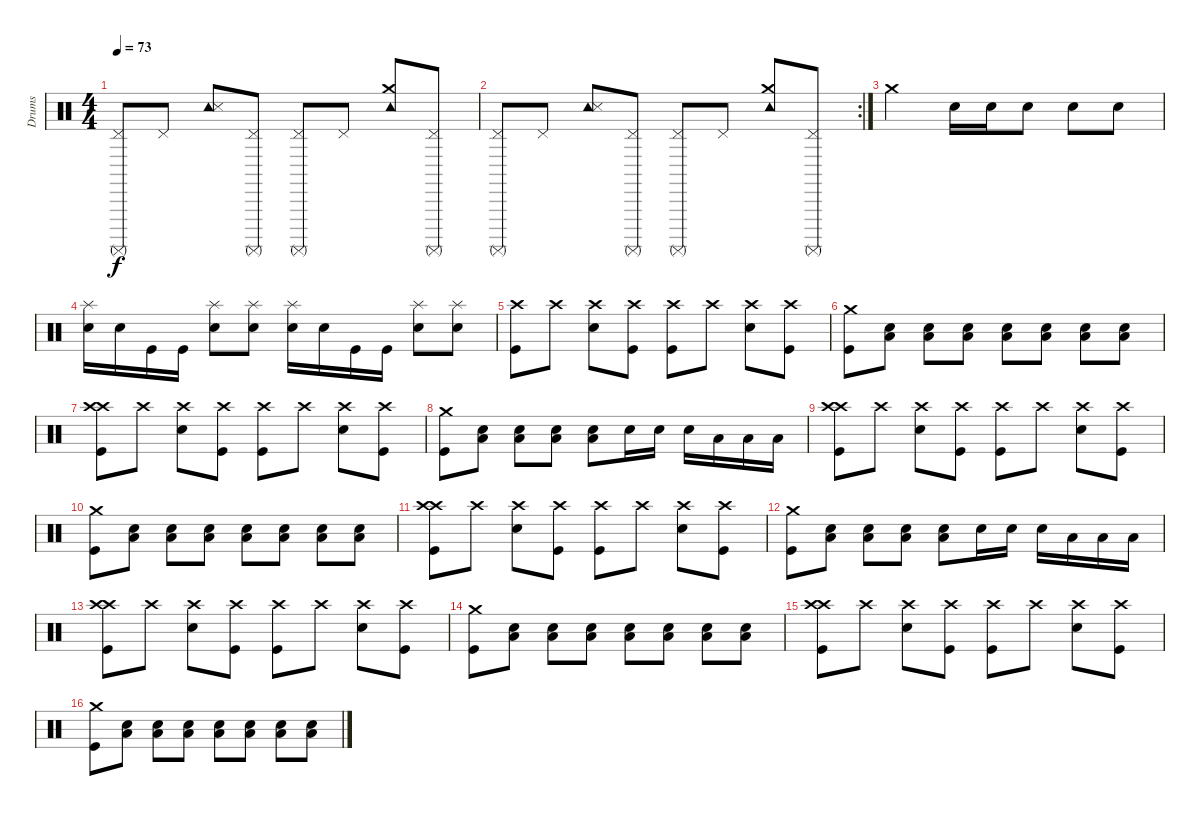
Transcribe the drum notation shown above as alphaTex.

\track ("Drums" "Drums") {instrument percussion}
\staff {score}
\articulation defaults
\ts (4 4)
\tempo 73
\clef neutral
\ks c
("Pedal Hi-Hat (hit)" "Surdo (mute)").8{dy f} "Pedal Hi-Hat (hit)".8 ("Tambourine (hit)" "Snare (side stick) 3").8 ("Pedal Hi-Hat (hit)" "Surdo (mute)").8 ("Pedal Hi-Hat (hit)" "Surdo (mute)").8 "Pedal Hi-Hat (hit)".8 ("Tambourine (hit)" "Crash medium (hit)").8 ("Pedal Hi-Hat (hit)" "Surdo (mute)").8 |
\rc 2
("Pedal Hi-Hat (hit)" "Surdo (mute)").8 "Pedal Hi-Hat (hit)".8 ("Tambourine (hit)" "Snare (side stick) 3").8 ("Pedal Hi-Hat (hit)" "Surdo (mute)").8 ("Pedal Hi-Hat (hit)" "Surdo (mute)").8 "Pedal Hi-Hat (hit)".8 ("Tambourine (hit)" "Crash medium (hit)").8 ("Pedal Hi-Hat (hit)" "Surdo (mute)").8 |
"Crash medium (hit)".2 "Electric Snare (hit)".16 "Electric Snare (hit)".16 "Electric Snare (hit)".8 "Electric Snare (hit)".8 "Electric Snare (hit)".8 |
("Splash (hit)" "Electric Snare (hit)").16 "Electric Snare (hit)".16 "Kick (hit)".16 "Kick (hit)".16 ("Splash (hit)" "Electric Snare (hit)").8 ("Splash (hit)" "Electric Snare (hit)").8 ("Splash (hit)" "Electric Snare (hit)").16 "Electric Snare (hit)".16 "Kick (hit)".16 "Kick (hit)".16 ("Splash (hit)" "Electric Snare (hit)").8 ("Splash (hit)" "Electric Snare (hit)").8 |
("Crash high (hit)" "Kick (hit)").8 "Crash high (hit)".8 ("Crash high (hit)" "Electric Snare (hit)").8 ("Crash high (hit)" "Kick (hit)").8 ("Crash high (hit)" "Kick (hit)").8 "Crash high (hit)".8 ("Crash high (hit)" "Electric Snare (hit)").8 ("Crash high (hit)" "Kick (hit)").8 |
("Crash medium (hit)" "Kick (hit)").8 ("Low Floor Tom (hit)" "Electric Snare (hit)").8 ("Low Floor Tom (hit)" "Electric Snare (hit)").8 ("Low Floor Tom (hit)" "Electric Snare (hit)").8 ("Low Floor Tom (hit)" "Electric Snare (hit)").8 ("Low Floor Tom (hit)" "Electric Snare (hit)").8 ("Low Floor Tom (hit)" "Electric Snare (hit)").8 ("Low Floor Tom (hit)" "Electric Snare (hit)").8 |
("Crash high (hit)" "Crash high (hit)" "Kick (hit)").8 "Crash high (hit)".8 ("Crash high (hit)" "Electric Snare (hit)").8 ("Crash high (hit)" "Kick (hit)").8 ("Crash high (hit)" "Kick (hit)").8 "Crash high (hit)".8 ("Crash high (hit)" "Electric Snare (hit)").8 ("Crash high (hit)" "Kick (hit)").8 |
("Crash medium (hit)" "Kick (hit)").8 ("Low Floor Tom (hit)" "Electric Snare (hit)").8 ("Low Floor Tom (hit)" "Electric Snare (hit)").8 ("Low Floor Tom (hit)" "Electric Snare (hit)").8 ("Low Floor Tom (hit)" "Electric Snare (hit)").8 "Electric Snare (hit)".16 "Electric Snare (hit)".16 "Electric Snare (hit)".16 "Low Tom (hit)".16 "Low Tom (hit)".16 "Low Tom (hit)".16 |
("Crash high (hit)" "Crash high (hit)" "Kick (hit)").8 "Crash high (hit)".8 ("Crash high (hit)" "Electric Snare (hit)").8 ("Crash high (hit)" "Kick (hit)").8 ("Crash high (hit)" "Kick (hit)").8 "Crash high (hit)".8 ("Crash high (hit)" "Electric Snare (hit)").8 ("Crash high (hit)" "Kick (hit)").8 |
("Crash medium (hit)" "Kick (hit)").8 ("Low Floor Tom (hit)" "Electric Snare (hit)").8 ("Low Floor Tom (hit)" "Electric Snare (hit)").8 ("Low Floor Tom (hit)" "Electric Snare (hit)").8 ("Low Floor Tom (hit)" "Electric Snare (hit)").8 ("Low Floor Tom (hit)" "Electric Snare (hit)").8 ("Low Floor Tom (hit)" "Electric Snare (hit)").8 ("Low Floor Tom (hit)" "Electric Snare (hit)").8 |
("Crash high (hit)" "Crash high (hit)" "Kick (hit)").8 "Crash high (hit)".8 ("Crash high (hit)" "Electric Snare (hit)").8 ("Crash high (hit)" "Kick (hit)").8 ("Crash high (hit)" "Kick (hit)").8 "Crash high (hit)".8 ("Crash high (hit)" "Electric Snare (hit)").8 ("Crash high (hit)" "Kick (hit)").8 |
("Crash medium (hit)" "Kick (hit)").8 ("Low Floor Tom (hit)" "Electric Snare (hit)").8 ("Low Floor Tom (hit)" "Electric Snare (hit)").8 ("Low Floor Tom (hit)" "Electric Snare (hit)").8 ("Low Floor Tom (hit)" "Electric Snare (hit)").8 "Electric Snare (hit)".16 "Electric Snare (hit)".16 "Electric Snare (hit)".16 "Low Tom (hit)".16 "Low Tom (hit)".16 "Low Tom (hit)".16 |
("Crash high (hit)" "Crash high (hit)" "Kick (hit)").8 "Crash high (hit)".8 ("Crash high (hit)" "Electric Snare (hit)").8 ("Crash high (hit)" "Kick (hit)").8 ("Crash high (hit)" "Kick (hit)").8 "Crash high (hit)".8 ("Crash high (hit)" "Electric Snare (hit)").8 ("Crash high (hit)" "Kick (hit)").8 |
("Crash medium (hit)" "Kick (hit)").8 ("Low Floor Tom (hit)" "Electric Snare (hit)").8 ("Low Floor Tom (hit)" "Electric Snare (hit)").8 ("Low Floor Tom (hit)" "Electric Snare (hit)").8 ("Low Floor Tom (hit)" "Electric Snare (hit)").8 ("Low Floor Tom (hit)" "Electric Snare (hit)").8 ("Low Floor Tom (hit)" "Electric Snare (hit)").8 ("Low Floor Tom (hit)" "Electric Snare (hit)").8 |
("Crash high (hit)" "Crash high (hit)" "Kick (hit)").8 "Crash high (hit)".8 ("Crash high (hit)" "Electric Snare (hit)").8 ("Crash high (hit)" "Kick (hit)").8 ("Crash high (hit)" "Kick (hit)").8 "Crash high (hit)".8 ("Crash high (hit)" "Electric Snare (hit)").8 ("Crash high (hit)" "Kick (hit)").8 |
("Crash medium (hit)" "Kick (hit)").8 ("Low Floor Tom (hit)" "Electric Snare (hit)").8 ("Low Floor Tom (hit)" "Electric Snare (hit)").8 ("Low Floor Tom (hit)" "Electric Snare (hit)").8 ("Low Floor Tom (hit)" "Electric Snare (hit)").8 ("Low Floor Tom (hit)" "Electric Snare (hit)").8 ("Low Floor Tom (hit)" "Electric Snare (hit)").8 ("Low Floor Tom (hit)" "Electric Snare (hit)").8
